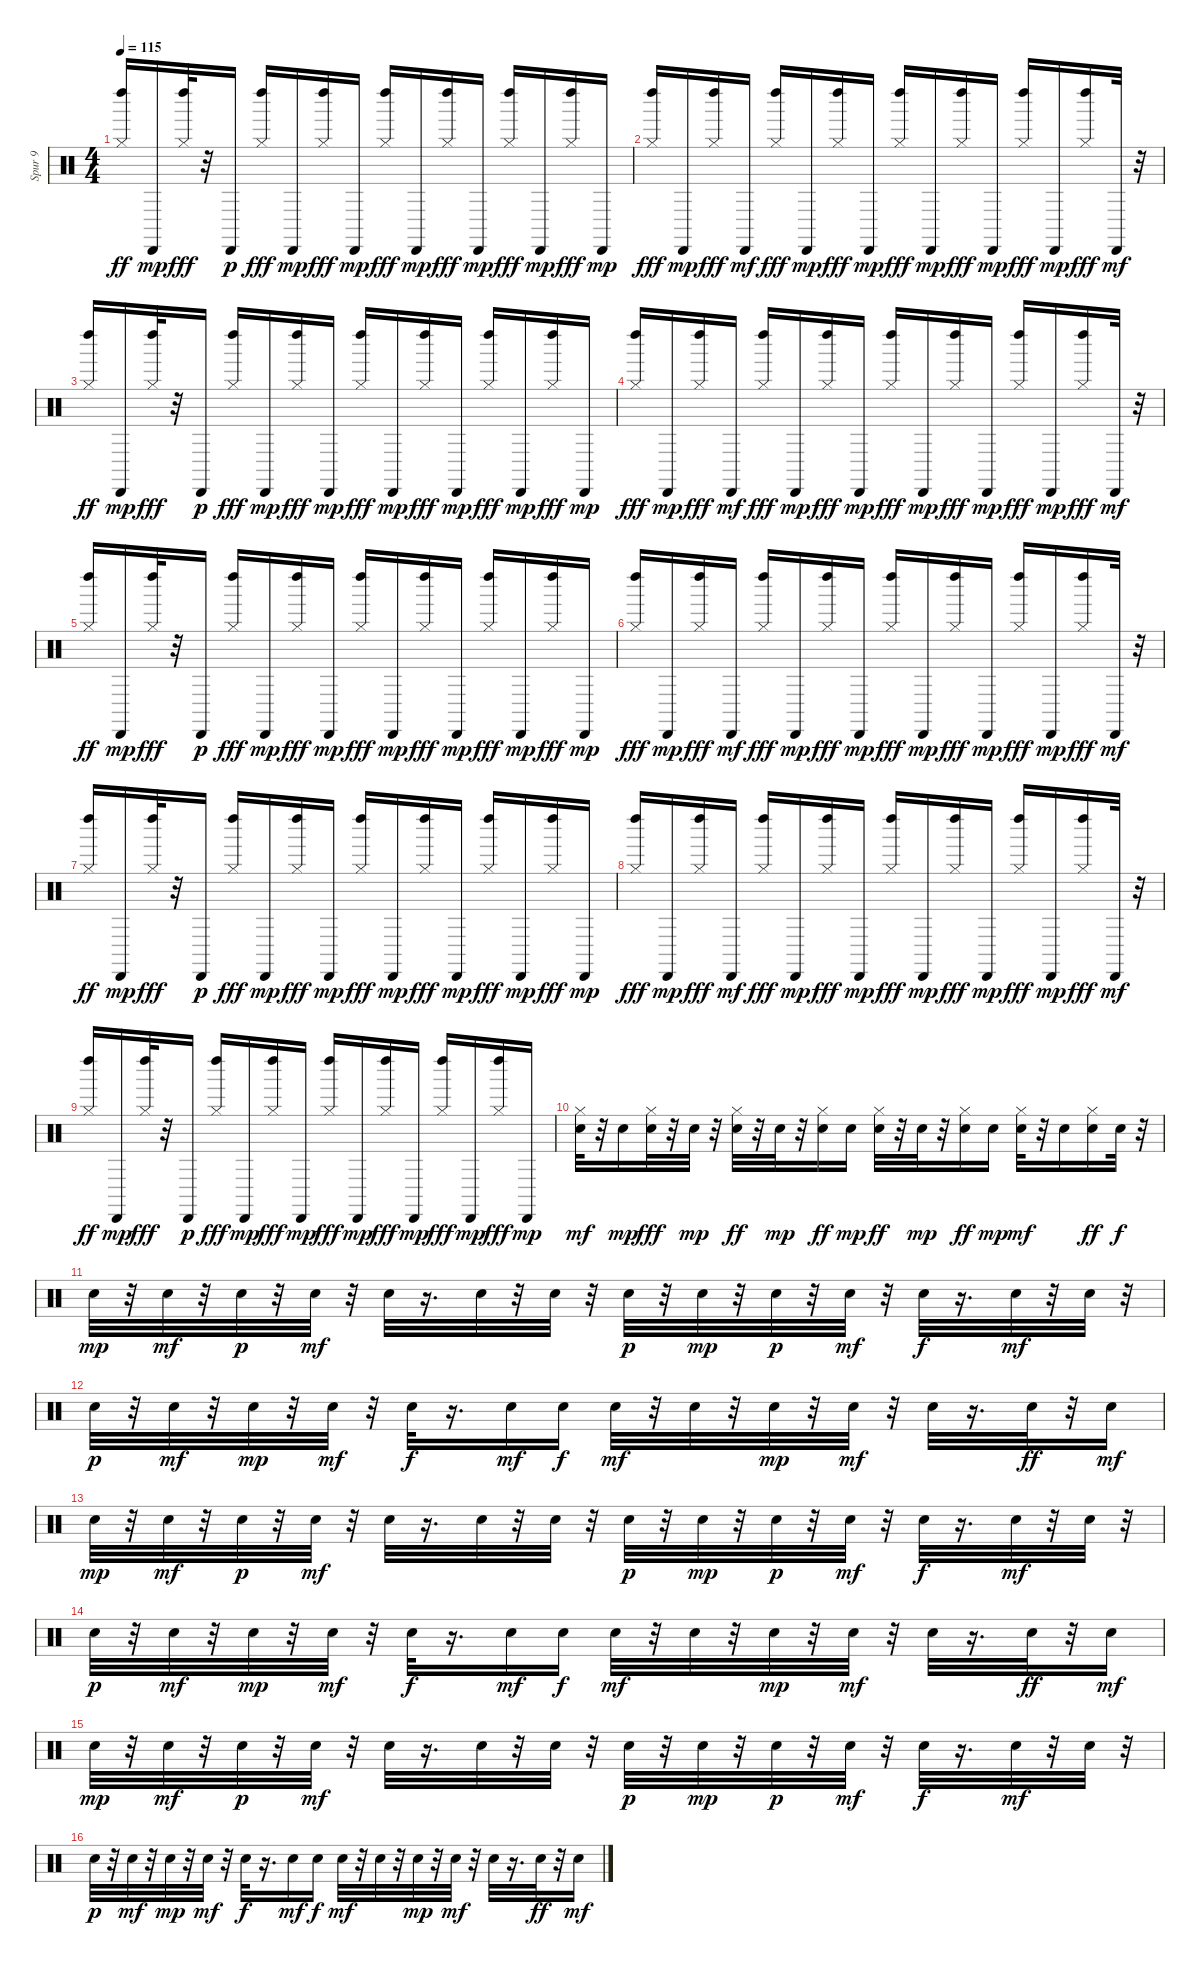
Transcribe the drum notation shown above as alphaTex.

\track ("Spur 9" "Spur 9") {instrument percussion}
\staff {score}
\articulation defaults
\ts (4 4)
\tempo 115
\clef neutral
\ks c
("Hi-Hat (closed)" "Left Maraca (hit)").16{dy ff} "Cabasa (hit)".16{dy mp} ("Left Maraca (hit)" "Hi-Hat (closed)").32{dy fff} r.32 "Cabasa (hit)".16{dy p} ("Left Maraca (hit)" "Hi-Hat (closed)").16{dy fff} "Cabasa (hit)".16{dy mp} ("Left Maraca (hit)" "Hi-Hat (closed)").16{dy fff} "Cabasa (hit)".16{dy mp} ("Left Maraca (hit)" "Hi-Hat (closed)").16{dy fff} "Cabasa (hit)".16{dy mp} ("Left Maraca (hit)" "Hi-Hat (closed)").16{dy fff} "Cabasa (hit)".16{dy mp} ("Left Maraca (hit)" "Hi-Hat (closed)").16{dy fff} "Cabasa (hit)".16{dy mp} ("Left Maraca (hit)" "Hi-Hat (closed)").16{dy fff} "Cabasa (hit)".16{dy mp} |
("Left Maraca (hit)" "Hi-Hat (closed)").16{dy fff} "Cabasa (hit)".16{dy mp} ("Hi-Hat (closed)" "Left Maraca (hit)").16{dy fff} "Cabasa (hit)".16{dy mf} ("Hi-Hat (closed)" "Left Maraca (hit)").16{dy fff} "Cabasa (hit)".16{dy mp} ("Hi-Hat (closed)" "Left Maraca (hit)").16{dy fff} "Cabasa (hit)".16{dy mp} ("Left Maraca (hit)" "Hi-Hat (closed)").16{dy fff} "Cabasa (hit)".16{dy mp} ("Left Maraca (hit)" "Hi-Hat (closed)").16{dy fff} "Cabasa (hit)".16{dy mp} ("Left Maraca (hit)" "Hi-Hat (closed)").16{dy fff} "Cabasa (hit)".16{dy mp} ("Left Maraca (hit)" "Hi-Hat (closed)").16{dy fff} "Cabasa (hit)".32{dy mf} r.32 |
("Hi-Hat (closed)" "Left Maraca (hit)").16{dy ff} "Cabasa (hit)".16{dy mp} ("Left Maraca (hit)" "Hi-Hat (closed)").32{dy fff} r.32 "Cabasa (hit)".16{dy p} ("Left Maraca (hit)" "Hi-Hat (closed)").16{dy fff} "Cabasa (hit)".16{dy mp} ("Left Maraca (hit)" "Hi-Hat (closed)").16{dy fff} "Cabasa (hit)".16{dy mp} ("Left Maraca (hit)" "Hi-Hat (closed)").16{dy fff} "Cabasa (hit)".16{dy mp} ("Left Maraca (hit)" "Hi-Hat (closed)").16{dy fff} "Cabasa (hit)".16{dy mp} ("Left Maraca (hit)" "Hi-Hat (closed)").16{dy fff} "Cabasa (hit)".16{dy mp} ("Left Maraca (hit)" "Hi-Hat (closed)").16{dy fff} "Cabasa (hit)".16{dy mp} |
("Left Maraca (hit)" "Hi-Hat (closed)").16{dy fff} "Cabasa (hit)".16{dy mp} ("Hi-Hat (closed)" "Left Maraca (hit)").16{dy fff} "Cabasa (hit)".16{dy mf} ("Hi-Hat (closed)" "Left Maraca (hit)").16{dy fff} "Cabasa (hit)".16{dy mp} ("Hi-Hat (closed)" "Left Maraca (hit)").16{dy fff} "Cabasa (hit)".16{dy mp} ("Left Maraca (hit)" "Hi-Hat (closed)").16{dy fff} "Cabasa (hit)".16{dy mp} ("Left Maraca (hit)" "Hi-Hat (closed)").16{dy fff} "Cabasa (hit)".16{dy mp} ("Left Maraca (hit)" "Hi-Hat (closed)").16{dy fff} "Cabasa (hit)".16{dy mp} ("Left Maraca (hit)" "Hi-Hat (closed)").16{dy fff} "Cabasa (hit)".32{dy mf} r.32 |
("Hi-Hat (closed)" "Left Maraca (hit)").16{dy ff} "Cabasa (hit)".16{dy mp} ("Left Maraca (hit)" "Hi-Hat (closed)").32{dy fff} r.32 "Cabasa (hit)".16{dy p} ("Left Maraca (hit)" "Hi-Hat (closed)").16{dy fff} "Cabasa (hit)".16{dy mp} ("Left Maraca (hit)" "Hi-Hat (closed)").16{dy fff} "Cabasa (hit)".16{dy mp} ("Left Maraca (hit)" "Hi-Hat (closed)").16{dy fff} "Cabasa (hit)".16{dy mp} ("Left Maraca (hit)" "Hi-Hat (closed)").16{dy fff} "Cabasa (hit)".16{dy mp} ("Left Maraca (hit)" "Hi-Hat (closed)").16{dy fff} "Cabasa (hit)".16{dy mp} ("Left Maraca (hit)" "Hi-Hat (closed)").16{dy fff} "Cabasa (hit)".16{dy mp} |
("Left Maraca (hit)" "Hi-Hat (closed)").16{dy fff} "Cabasa (hit)".16{dy mp} ("Hi-Hat (closed)" "Left Maraca (hit)").16{dy fff} "Cabasa (hit)".16{dy mf} ("Hi-Hat (closed)" "Left Maraca (hit)").16{dy fff} "Cabasa (hit)".16{dy mp} ("Hi-Hat (closed)" "Left Maraca (hit)").16{dy fff} "Cabasa (hit)".16{dy mp} ("Left Maraca (hit)" "Hi-Hat (closed)").16{dy fff} "Cabasa (hit)".16{dy mp} ("Left Maraca (hit)" "Hi-Hat (closed)").16{dy fff} "Cabasa (hit)".16{dy mp} ("Left Maraca (hit)" "Hi-Hat (closed)").16{dy fff} "Cabasa (hit)".16{dy mp} ("Left Maraca (hit)" "Hi-Hat (closed)").16{dy fff} "Cabasa (hit)".32{dy mf} r.32 |
("Hi-Hat (closed)" "Left Maraca (hit)").16{dy ff} "Cabasa (hit)".16{dy mp} ("Left Maraca (hit)" "Hi-Hat (closed)").32{dy fff} r.32 "Cabasa (hit)".16{dy p} ("Left Maraca (hit)" "Hi-Hat (closed)").16{dy fff} "Cabasa (hit)".16{dy mp} ("Left Maraca (hit)" "Hi-Hat (closed)").16{dy fff} "Cabasa (hit)".16{dy mp} ("Left Maraca (hit)" "Hi-Hat (closed)").16{dy fff} "Cabasa (hit)".16{dy mp} ("Left Maraca (hit)" "Hi-Hat (closed)").16{dy fff} "Cabasa (hit)".16{dy mp} ("Left Maraca (hit)" "Hi-Hat (closed)").16{dy fff} "Cabasa (hit)".16{dy mp} ("Left Maraca (hit)" "Hi-Hat (closed)").16{dy fff} "Cabasa (hit)".16{dy mp} |
("Left Maraca (hit)" "Hi-Hat (closed)").16{dy fff} "Cabasa (hit)".16{dy mp} ("Hi-Hat (closed)" "Left Maraca (hit)").16{dy fff} "Cabasa (hit)".16{dy mf} ("Hi-Hat (closed)" "Left Maraca (hit)").16{dy fff} "Cabasa (hit)".16{dy mp} ("Hi-Hat (closed)" "Left Maraca (hit)").16{dy fff} "Cabasa (hit)".16{dy mp} ("Left Maraca (hit)" "Hi-Hat (closed)").16{dy fff} "Cabasa (hit)".16{dy mp} ("Left Maraca (hit)" "Hi-Hat (closed)").16{dy fff} "Cabasa (hit)".16{dy mp} ("Left Maraca (hit)" "Hi-Hat (closed)").16{dy fff} "Cabasa (hit)".16{dy mp} ("Left Maraca (hit)" "Hi-Hat (closed)").16{dy fff} "Cabasa (hit)".32{dy mf} r.32 |
("Hi-Hat (closed)" "Left Maraca (hit)").16{dy ff} "Cabasa (hit)".16{dy mp} ("Left Maraca (hit)" "Hi-Hat (closed)").32{dy fff} r.32 "Cabasa (hit)".16{dy p} ("Left Maraca (hit)" "Hi-Hat (closed)").16{dy fff} "Cabasa (hit)".16{dy mp} ("Left Maraca (hit)" "Hi-Hat (closed)").16{dy fff} "Cabasa (hit)".16{dy mp} ("Left Maraca (hit)" "Hi-Hat (closed)").16{dy fff} "Cabasa (hit)".16{dy mp} ("Left Maraca (hit)" "Hi-Hat (closed)").16{dy fff} "Cabasa (hit)".16{dy mp} ("Left Maraca (hit)" "Hi-Hat (closed)").16{dy fff} "Cabasa (hit)".16{dy mp} ("Left Maraca (hit)" "Hi-Hat (closed)").16{dy fff} "Cabasa (hit)".16{dy mp} |
("Electric Snare (hit)" "Hi-Hat (closed)").32{dy mf volume 14} r.32 "Electric Snare (hit)".16{dy mp} ("Electric Snare (hit)" "Hi-Hat (closed)").32{dy fff} r.32 "Electric Snare (hit)".32{dy mp} r.32 ("Electric Snare (hit)" "Hi-Hat (closed)").32{dy ff} r.32 "Electric Snare (hit)".32{dy mp} r.32 ("Electric Snare (hit)" "Hi-Hat (closed)").16{dy ff} "Electric Snare (hit)".16{dy mp} ("Electric Snare (hit)" "Hi-Hat (closed)").32{dy ff} r.32 "Electric Snare (hit)".32{dy mp} r.32 ("Electric Snare (hit)" "Hi-Hat (closed)").16{dy ff} "Electric Snare (hit)".16{dy mp} ("Electric Snare (hit)" "Hi-Hat (closed)").32{dy mf} r.32 "Electric Snare (hit)".16 ("Electric Snare (hit)" "Hi-Hat (closed)").16{dy ff} "Electric Snare (hit)".32{dy f} r.32 |
"Electric Snare (hit)".32{dy mp volume 12} r.32 "Electric Snare (hit)".32{dy mf} r.32 "Electric Snare (hit)".32{dy p} r.32 "Electric Snare (hit)".32{dy mf} r.32 "Electric Snare (hit)".32 r.16{d} "Electric Snare (hit)".32 r.32 "Electric Snare (hit)".32 r.32 "Electric Snare (hit)".32{dy p} r.32 "Electric Snare (hit)".32{dy mp} r.32 "Electric Snare (hit)".32{dy p} r.32 "Electric Snare (hit)".32{dy mf} r.32 "Electric Snare (hit)".32{dy f} r.16{d} "Electric Snare (hit)".32{dy mf} r.32 "Electric Snare (hit)".32 r.32 |
"Electric Snare (hit)".32{dy p} r.32 "Electric Snare (hit)".32{dy mf} r.32 "Electric Snare (hit)".32{dy mp} r.32 "Electric Snare (hit)".32{dy mf} r.32 "Electric Snare (hit)".32{dy f} r.16{d} "Electric Snare (hit)".16{dy mf} "Electric Snare (hit)".16{dy f} "Electric Snare (hit)".32{dy mf} r.32 "Electric Snare (hit)".32 r.32 "Electric Snare (hit)".32{dy mp} r.32 "Electric Snare (hit)".32{dy mf} r.32 "Electric Snare (hit)".32 r.16{d} "Electric Snare (hit)".32{dy ff} r.32 "Electric Snare (hit)".16{dy mf} |
"Electric Snare (hit)".32{dy mp} r.32 "Electric Snare (hit)".32{dy mf} r.32 "Electric Snare (hit)".32{dy p} r.32 "Electric Snare (hit)".32{dy mf} r.32 "Electric Snare (hit)".32 r.16{d} "Electric Snare (hit)".32 r.32 "Electric Snare (hit)".32 r.32 "Electric Snare (hit)".32{dy p} r.32 "Electric Snare (hit)".32{dy mp} r.32 "Electric Snare (hit)".32{dy p} r.32 "Electric Snare (hit)".32{dy mf} r.32 "Electric Snare (hit)".32{dy f} r.16{d} "Electric Snare (hit)".32{dy mf} r.32 "Electric Snare (hit)".32 r.32 |
"Electric Snare (hit)".32{dy p} r.32 "Electric Snare (hit)".32{dy mf} r.32 "Electric Snare (hit)".32{dy mp} r.32 "Electric Snare (hit)".32{dy mf} r.32 "Electric Snare (hit)".32{dy f} r.16{d} "Electric Snare (hit)".16{dy mf} "Electric Snare (hit)".16{dy f} "Electric Snare (hit)".32{dy mf} r.32 "Electric Snare (hit)".32 r.32 "Electric Snare (hit)".32{dy mp} r.32 "Electric Snare (hit)".32{dy mf} r.32 "Electric Snare (hit)".32 r.16{d} "Electric Snare (hit)".32{dy ff} r.32 "Electric Snare (hit)".16{dy mf} |
"Electric Snare (hit)".32{dy mp} r.32 "Electric Snare (hit)".32{dy mf} r.32 "Electric Snare (hit)".32{dy p} r.32 "Electric Snare (hit)".32{dy mf} r.32 "Electric Snare (hit)".32 r.16{d} "Electric Snare (hit)".32 r.32 "Electric Snare (hit)".32 r.32 "Electric Snare (hit)".32{dy p} r.32 "Electric Snare (hit)".32{dy mp} r.32 "Electric Snare (hit)".32{dy p} r.32 "Electric Snare (hit)".32{dy mf} r.32 "Electric Snare (hit)".32{dy f} r.16{d} "Electric Snare (hit)".32{dy mf} r.32 "Electric Snare (hit)".32 r.32 |
"Electric Snare (hit)".32{dy p} r.32 "Electric Snare (hit)".32{dy mf} r.32 "Electric Snare (hit)".32{dy mp} r.32 "Electric Snare (hit)".32{dy mf} r.32 "Electric Snare (hit)".32{dy f} r.16{d} "Electric Snare (hit)".16{dy mf} "Electric Snare (hit)".16{dy f} "Electric Snare (hit)".32{dy mf} r.32 "Electric Snare (hit)".32 r.32 "Electric Snare (hit)".32{dy mp} r.32 "Electric Snare (hit)".32{dy mf} r.32 "Electric Snare (hit)".32 r.16{d} "Electric Snare (hit)".32{dy ff} r.32 "Electric Snare (hit)".16{dy mf}
